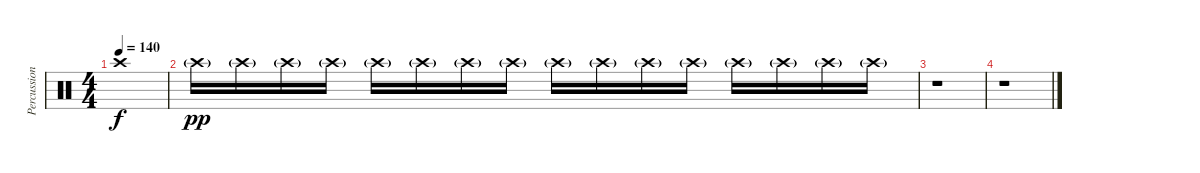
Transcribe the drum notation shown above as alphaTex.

\track ("Percussions" "Percussion") {instrument percussion}
\staff {score}
\articulation defaults
\ts (4 4)
\tempo 140
\clef neutral
\ks c "Crash high (hit)"{t}.1{dy f}
|
"Crash high (hit)"{g}.16{dy pp} "Crash high (hit)"{g}.16 "Crash high (hit)"{g}.16 "Crash high (hit)"{g}.16 "Crash high (hit)"{g}.16 "Crash high (hit)"{g}.16 "Crash high (hit)"{g}.16 "Crash high (hit)"{g}.16 "Crash high (hit)"{g}.16 "Crash high (hit)"{g}.16 "Crash high (hit)"{g}.16 "Crash high (hit)"{g}.16 "Crash high (hit)"{g}.16 "Crash high (hit)"{g}.16 "Crash high (hit)"{g}.16 "Crash high (hit)"{g}.16 |
r.1 |
r.1
